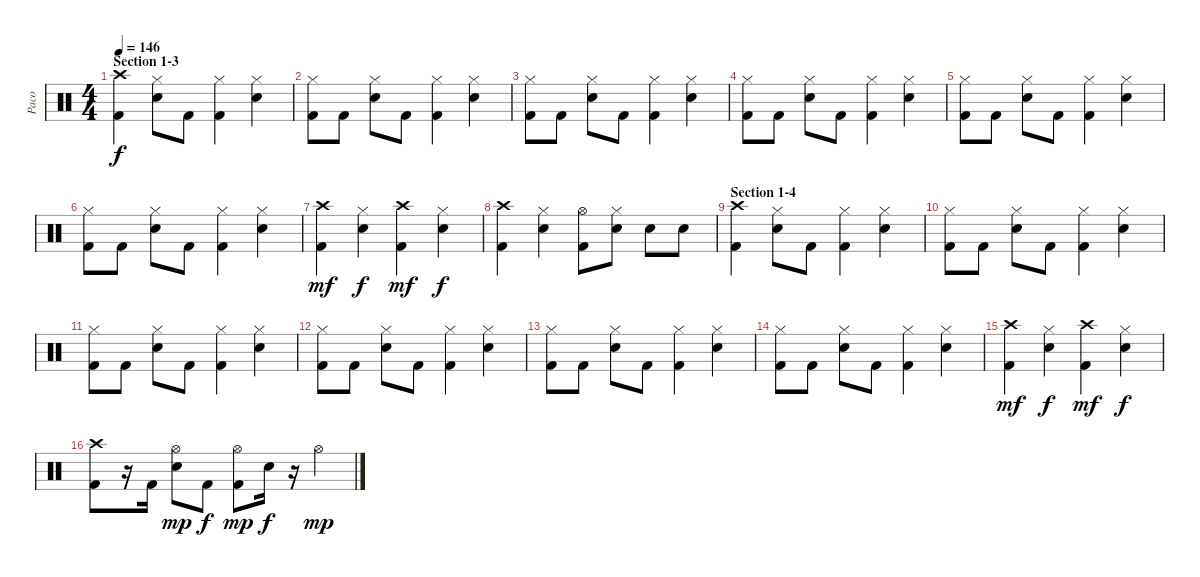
\track ("Paco" "Paco") {instrument percussion}
\staff {score}
\articulation defaults
\ts (4 4)
\section ("" "Section 1-3")
\tempo 146
\clef neutral
\ks c
("Crash high (hit)" "Kick (hit) 2").4{dy f} ("Hi-Hat (closed)" "Snare (hit) 2").8 "Kick (hit) 2".8 ("Hi-Hat (closed)" "Kick (hit) 2").4 ("Hi-Hat (closed)" "Snare (hit) 2").4 |
("Hi-Hat (closed)" "Kick (hit) 2").8 "Kick (hit) 2".8 ("Hi-Hat (closed)" "Snare (hit) 2").8 "Kick (hit) 2".8 ("Hi-Hat (closed)" "Kick (hit) 2").4 ("Hi-Hat (closed)" "Snare (hit) 2").4 |
("Hi-Hat (closed)" "Kick (hit) 2").8 "Kick (hit) 2".8 ("Hi-Hat (closed)" "Snare (hit) 2").8 "Kick (hit) 2".8 ("Hi-Hat (closed)" "Kick (hit) 2").4 ("Hi-Hat (closed)" "Snare (hit) 2").4 |
("Hi-Hat (closed)" "Kick (hit) 2").8 "Kick (hit) 2".8 ("Hi-Hat (closed)" "Snare (hit) 2").8 "Kick (hit) 2".8 ("Hi-Hat (closed)" "Kick (hit) 2").4 ("Hi-Hat (closed)" "Snare (hit) 2").4 |
("Hi-Hat (closed)" "Kick (hit) 2").8 "Kick (hit) 2".8 ("Hi-Hat (closed)" "Snare (hit) 2").8 "Kick (hit) 2".8 ("Hi-Hat (closed)" "Kick (hit) 2").4 ("Hi-Hat (closed)" "Snare (hit) 2").4 |
("Hi-Hat (closed)" "Kick (hit) 2").8 "Kick (hit) 2".8 ("Hi-Hat (closed)" "Snare (hit) 2").8 "Kick (hit) 2".8 ("Hi-Hat (closed)" "Kick (hit) 2").4 ("Hi-Hat (closed)" "Snare (hit) 2").4 |
("Crash high (hit)" "Kick (hit) 2").4{dy mf} ("Hi-Hat (closed)" "Snare (hit) 2").4{dy f} ("Crash high (hit)" "Kick (hit) 2").4{dy mf} ("Hi-Hat (closed)" "Snare (hit) 2").4{dy f} |
("Crash high (hit)" "Kick (hit) 2").4 ("Hi-Hat (closed)" "Snare (hit) 2").4 ("Hi-Hat (open)" "Kick (hit) 2").8 ("Hi-Hat (closed)" "Snare (hit) 2").8 "Snare (hit) 2".8 "Snare (hit) 2".8 |
\section ("" "Section 1-4")
("Crash high (hit)" "Kick (hit) 2").4 ("Hi-Hat (closed)" "Snare (hit) 2").8 "Kick (hit) 2".8 ("Hi-Hat (closed)" "Kick (hit) 2").4 ("Hi-Hat (closed)" "Snare (hit) 2").4 |
("Hi-Hat (closed)" "Kick (hit) 2").8 "Kick (hit) 2".8 ("Hi-Hat (closed)" "Snare (hit) 2").8 "Kick (hit) 2".8 ("Hi-Hat (closed)" "Kick (hit) 2").4 ("Hi-Hat (closed)" "Snare (hit) 2").4 |
("Hi-Hat (closed)" "Kick (hit) 2").8 "Kick (hit) 2".8 ("Hi-Hat (closed)" "Snare (hit) 2").8 "Kick (hit) 2".8 ("Hi-Hat (closed)" "Kick (hit) 2").4 ("Hi-Hat (closed)" "Snare (hit) 2").4 |
("Hi-Hat (closed)" "Kick (hit) 2").8 "Kick (hit) 2".8 ("Hi-Hat (closed)" "Snare (hit) 2").8 "Kick (hit) 2".8 ("Hi-Hat (closed)" "Kick (hit) 2").4 ("Hi-Hat (closed)" "Snare (hit) 2").4 |
("Hi-Hat (closed)" "Kick (hit) 2").8 "Kick (hit) 2".8 ("Hi-Hat (closed)" "Snare (hit) 2").8 "Kick (hit) 2".8 ("Hi-Hat (closed)" "Kick (hit) 2").4 ("Hi-Hat (closed)" "Snare (hit) 2").4 |
("Hi-Hat (closed)" "Kick (hit) 2").8 "Kick (hit) 2".8 ("Hi-Hat (closed)" "Snare (hit) 2").8 "Kick (hit) 2".8 ("Hi-Hat (closed)" "Kick (hit) 2").4 ("Hi-Hat (closed)" "Snare (hit) 2").4 |
("Crash high (hit)" "Kick (hit) 2").4{dy mf} ("Hi-Hat (closed)" "Snare (hit) 2").4{dy f} ("Crash high (hit)" "Kick (hit) 2").4{dy mf} ("Hi-Hat (closed)" "Snare (hit) 2").4{dy f} |
("Crash high (hit)" "Kick (hit) 2").8 r.16 "Kick (hit) 2".16 ("Hi-Hat (open)" "Snare (hit) 2").8{dy mp} "Kick (hit) 2".8{dy f} ("Hi-Hat (open)" "Kick (hit) 2").8{dy mp} "Snare (hit) 2".16{dy f} r.16 "Hi-Hat (open)".4{dy mp}
